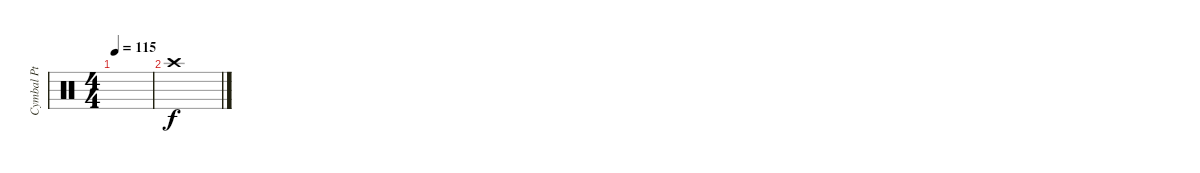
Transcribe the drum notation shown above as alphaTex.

\track ("Cymbal Pt 2" "Cymbal Pt ") {instrument percussion}
\staff {score}
\articulation defaults
\ts (4 4)
\tempo 115
\clef neutral
\ks c
|
"Crash high (hit)".1
